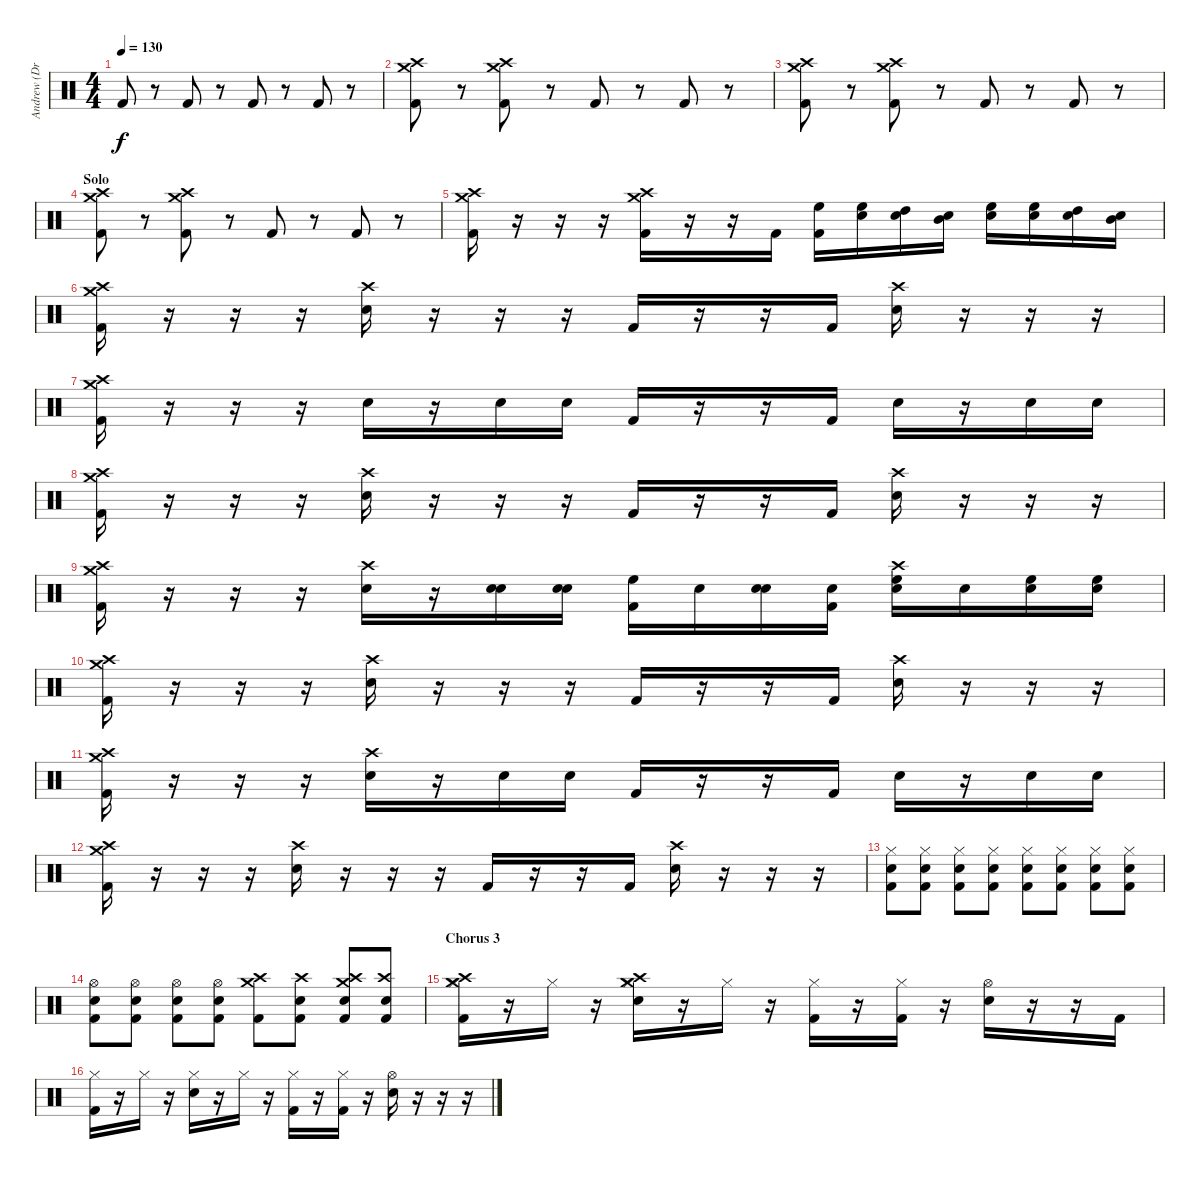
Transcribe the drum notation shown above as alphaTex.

\track ("Andrew (Drums)" "Andrew (Dr") {instrument percussion}
\staff {score}
\articulation defaults
\ts (4 4)
\tempo 130
\clef neutral
\ks c "Kick (hit) 2".8{dy f}
r.8 "Kick (hit) 2".8 r.8 "Kick (hit) 2".8 r.8 "Kick (hit) 2".8 r.8 |
("Crash high (hit)" "Crash medium (hit)" "Kick (hit) 2").8 r.8 ("Crash high (hit)" "Crash medium (hit)" "Kick (hit) 2").8 r.8 "Kick (hit) 2".8 r.8 "Kick (hit) 2".8 r.8 |
("Crash high (hit)" "Crash medium (hit)" "Kick (hit) 2").8 r.8 ("Crash high (hit)" "Crash medium (hit)" "Kick (hit) 2").8 r.8 "Kick (hit) 2".8 r.8 "Kick (hit) 2".8 r.8 |
\section ("" "Solo")
("Crash high (hit)" "Crash medium (hit)" "Kick (hit) 2").8 r.8 ("Crash high (hit)" "Crash medium (hit)" "Kick (hit) 2").8 r.8 "Kick (hit) 2".8 r.8 "Kick (hit) 2".8 r.8 |
("Crash high (hit)" "Crash medium (hit)" "Kick (hit) 2").16 r.16 r.16 r.16 ("Crash high (hit)" "Crash medium (hit)" "Kick (hit) 2").16 r.16 r.16 "Kick (hit) 2".16 ("High Floor Tom (hit)" "Kick (hit) 2").16 ("High Floor Tom (hit)" "Snare (hit) 2").16 ("High Tom (hit)" "Snare (hit) 2").16 ("Mid Tom (hit)" "Snare (hit) 2").16 ("High Floor Tom (hit)" "Snare (hit) 2").16 ("High Floor Tom (hit)" "Snare (hit) 2").16 ("High Tom (hit)" "Snare (hit) 2").16 ("Mid Tom (hit)" "Snare (hit) 2").16 |
("Crash medium (hit)" "Crash high (hit)" "Kick (hit) 2").16 r.16 r.16 r.16 ("Crash high (hit)" "Snare (hit) 2").16 r.16 r.16 r.16 "Kick (hit) 2".16 r.16 r.16 "Kick (hit) 2".16 ("Crash high (hit)" "Snare (hit) 2").16 r.16 r.16 r.16 |
("Crash medium (hit)" "Crash high (hit)" "Kick (hit) 2").16 r.16 r.16 r.16 "Snare (hit) 2".16 r.16 "Snare (hit) 2".16 "Snare (hit) 2".16 "Kick (hit) 2".16 r.16 r.16 "Kick (hit) 2".16 "Snare (hit) 2".16 r.16 "Snare (hit) 2".16 "Snare (hit) 2".16 |
("Crash medium (hit)" "Crash high (hit)" "Kick (hit) 2").16 r.16 r.16 r.16 ("Crash high (hit)" "Snare (hit) 2").16 r.16 r.16 r.16 "Kick (hit) 2".16 r.16 r.16 "Kick (hit) 2".16 ("Crash high (hit)" "Snare (hit) 2").16 r.16 r.16 r.16 |
("Crash medium (hit)" "Crash high (hit)" "Kick (hit) 2").16 r.16 r.16 r.16 ("Crash high (hit)" "Snare (hit) 2").16 r.16 ("Snare (hit) 2" "Snare (hit) 2").16 ("Snare (hit) 2" "Snare (hit) 2").16 ("High Floor Tom (hit)" "Kick (hit) 2").16 "Snare (hit) 2".16 ("Snare (hit) 2" "Snare (hit) 2").16 ("Snare (hit) 2" "Kick (hit) 2").16 ("Crash high (hit)" "High Floor Tom (hit)" "Snare (hit) 2").16 "Snare (hit) 2".16 ("High Floor Tom (hit)" "Snare (hit) 2").16 ("High Floor Tom (hit)" "Snare (hit) 2").16 |
("Crash medium (hit)" "Crash high (hit)" "Kick (hit) 2").16 r.16 r.16 r.16 ("Crash high (hit)" "Snare (hit) 2").16 r.16 r.16 r.16 "Kick (hit) 2".16 r.16 r.16 "Kick (hit) 2".16 ("Crash high (hit)" "Snare (hit) 2").16 r.16 r.16 r.16 |
("Crash medium (hit)" "Crash high (hit)" "Kick (hit) 2").16 r.16 r.16 r.16 ("Crash high (hit)" "Snare (hit) 2").16 r.16 "Snare (hit) 2".16 "Snare (hit) 2".16 "Kick (hit) 2".16 r.16 r.16 "Kick (hit) 2".16 "Snare (hit) 2".16 r.16 "Snare (hit) 2".16 "Snare (hit) 2".16 |
("Crash medium (hit)" "Crash high (hit)" "Kick (hit) 2").16 r.16 r.16 r.16 ("Crash high (hit)" "Snare (hit) 2").16 r.16 r.16 r.16 "Kick (hit) 2".16 r.16 r.16 "Kick (hit) 2".16 ("Crash high (hit)" "Snare (hit) 2").16 r.16 r.16 r.16 |
("Hi-Hat (closed)" "Snare (hit) 2" "Kick (hit) 2").8 ("Hi-Hat (closed)" "Snare (hit) 2" "Kick (hit) 2").8 ("Hi-Hat (closed)" "Snare (hit) 2" "Kick (hit) 2").8 ("Hi-Hat (closed)" "Snare (hit) 2" "Kick (hit) 2").8 ("Hi-Hat (closed)" "Snare (hit) 2" "Kick (hit) 2").8 ("Hi-Hat (closed)" "Snare (hit) 2" "Kick (hit) 2").8 ("Hi-Hat (closed)" "Snare (hit) 2" "Kick (hit) 2").8 ("Hi-Hat (closed)" "Snare (hit) 2" "Kick (hit) 2").8 |
("Hi-Hat (open)" "Snare (hit) 2" "Kick (hit) 2").8 ("Hi-Hat (open)" "Snare (hit) 2" "Kick (hit) 2").8 ("Hi-Hat (open)" "Snare (hit) 2" "Kick (hit) 2").8 ("Hi-Hat (open)" "Snare (hit) 2" "Kick (hit) 2").8 ("Crash medium (hit)" "Crash high (hit)" "Kick (hit) 2").8 ("Crash high (hit)" "Snare (hit) 2" "Kick (hit) 2").8 ("Crash medium (hit)" "Crash high (hit)" "Snare (hit) 2" "Kick (hit) 2").8 ("Crash high (hit)" "Snare (hit) 2" "Kick (hit) 2").8 |
\section ("" "Chorus 3")
("Crash high (hit)" "Crash medium (hit)" "Hi-Hat (closed)" "Kick (hit) 2").16 r.16 "Hi-Hat (closed)".16 r.16 ("Crash high (hit)" "Crash medium (hit)" "Hi-Hat (closed)" "Snare (hit) 2").16 r.16 "Hi-Hat (closed)".16 r.16 ("Hi-Hat (closed)" "Kick (hit) 2").16 r.16 ("Hi-Hat (closed)" "Kick (hit) 2").16 r.16 ("Hi-Hat (open)" "Snare (hit) 2").16 r.16 r.16 "Kick (hit) 2".16 |
("Hi-Hat (closed)" "Kick (hit) 2").16 r.16 "Hi-Hat (closed)".16 r.16 ("Hi-Hat (closed)" "Snare (hit) 2").16 r.16 "Hi-Hat (closed)".16 r.16 ("Hi-Hat (closed)" "Kick (hit) 2").16 r.16 ("Hi-Hat (closed)" "Kick (hit) 2").16 r.16 ("Hi-Hat (open)" "Snare (hit) 2").16 r.16 r.16 r.16
